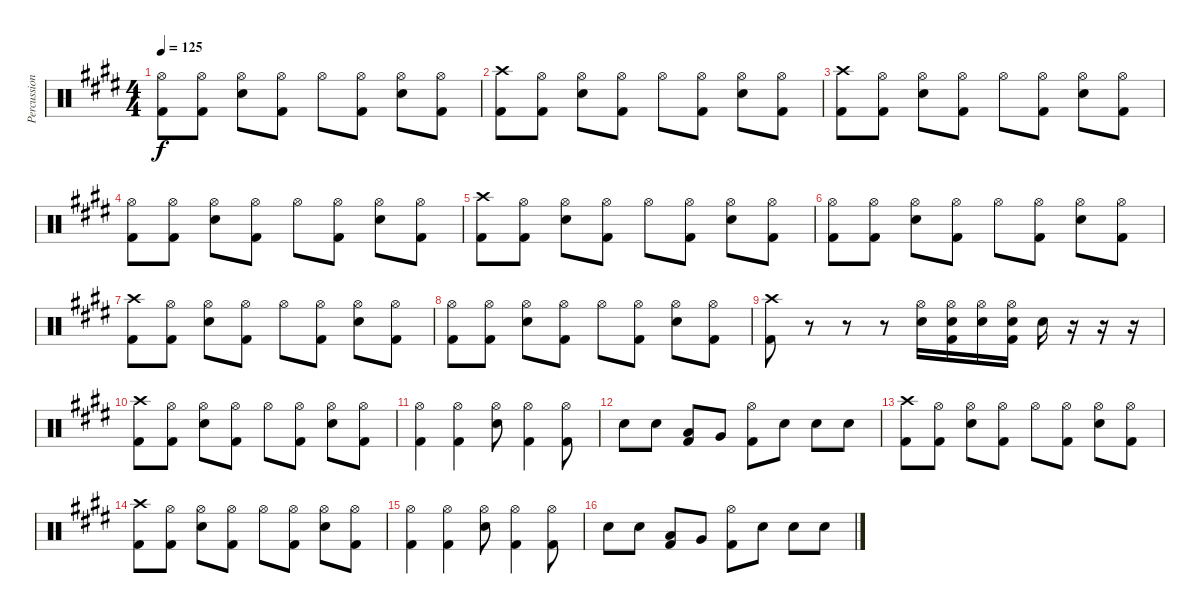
\track ("Percussion" "Percussion") {instrument percussion}
\staff {score}
\articulation defaults
\ts (4 4)
\tempo 125
\clef neutral
\ks e
("Hi-Hat (open)" "Kick (hit) 2").8{dy f} ("Hi-Hat (open)" "Kick (hit) 2").8 ("Hi-Hat (open)" "Electric Snare (hit)").8 ("Hi-Hat (open)" "Kick (hit) 2").8 "Hi-Hat (open)".8 ("Hi-Hat (open)" "Kick (hit) 2").8 ("Hi-Hat (open)" "Electric Snare (hit)").8 ("Hi-Hat (open)" "Kick (hit) 2").8 |
("Crash high (hit)" "Kick (hit) 2").8 ("Hi-Hat (open)" "Kick (hit) 2").8 ("Hi-Hat (open)" "Electric Snare (hit)").8 ("Hi-Hat (open)" "Kick (hit) 2").8 "Hi-Hat (open)".8 ("Hi-Hat (open)" "Kick (hit) 2").8 ("Hi-Hat (open)" "Electric Snare (hit)").8 ("Hi-Hat (open)" "Kick (hit) 2").8 |
("Crash high (hit)" "Kick (hit) 2").8 ("Hi-Hat (open)" "Kick (hit) 2").8 ("Hi-Hat (open)" "Electric Snare (hit)").8 ("Hi-Hat (open)" "Kick (hit) 2").8 "Hi-Hat (open)".8 ("Hi-Hat (open)" "Kick (hit) 2").8 ("Hi-Hat (open)" "Electric Snare (hit)").8 ("Hi-Hat (open)" "Kick (hit) 2").8 |
("Hi-Hat (open)" "Kick (hit) 2").8 ("Hi-Hat (open)" "Kick (hit) 2").8 ("Hi-Hat (open)" "Electric Snare (hit)").8 ("Hi-Hat (open)" "Kick (hit) 2").8 "Hi-Hat (open)".8 ("Hi-Hat (open)" "Kick (hit) 2").8 ("Hi-Hat (open)" "Electric Snare (hit)").8 ("Hi-Hat (open)" "Kick (hit) 2").8 |
("Crash high (hit)" "Kick (hit) 2").8 ("Hi-Hat (open)" "Kick (hit) 2").8 ("Hi-Hat (open)" "Electric Snare (hit)").8 ("Hi-Hat (open)" "Kick (hit) 2").8 "Hi-Hat (open)".8 ("Hi-Hat (open)" "Kick (hit) 2").8 ("Hi-Hat (open)" "Electric Snare (hit)").8 ("Hi-Hat (open)" "Kick (hit) 2").8 |
("Hi-Hat (open)" "Kick (hit) 2").8 ("Hi-Hat (open)" "Kick (hit) 2").8 ("Hi-Hat (open)" "Electric Snare (hit)").8 ("Hi-Hat (open)" "Kick (hit) 2").8 "Hi-Hat (open)".8 ("Hi-Hat (open)" "Kick (hit) 2").8 ("Hi-Hat (open)" "Electric Snare (hit)").8 ("Hi-Hat (open)" "Kick (hit) 2").8 |
("Crash high (hit)" "Kick (hit) 2").8 ("Hi-Hat (open)" "Kick (hit) 2").8 ("Hi-Hat (open)" "Electric Snare (hit)").8 ("Hi-Hat (open)" "Kick (hit) 2").8 "Hi-Hat (open)".8 ("Hi-Hat (open)" "Kick (hit) 2").8 ("Hi-Hat (open)" "Electric Snare (hit)").8 ("Hi-Hat (open)" "Kick (hit) 2").8 |
("Hi-Hat (open)" "Kick (hit) 2").8 ("Hi-Hat (open)" "Kick (hit) 2").8 ("Hi-Hat (open)" "Electric Snare (hit)").8 ("Hi-Hat (open)" "Kick (hit) 2").8 "Hi-Hat (open)".8 ("Hi-Hat (open)" "Kick (hit) 2").8 ("Hi-Hat (open)" "Electric Snare (hit)").8 ("Hi-Hat (open)" "Kick (hit) 2").8 |
("Crash high (hit)" "Kick (hit) 2").8 r.8 r.8 r.8 ("Hi-Hat (open)" "Electric Snare (hit)").16 ("Hi-Hat (open)" "Electric Snare (hit)" "Kick (hit) 2").16 ("Hi-Hat (open)" "Electric Snare (hit)").16 ("Hi-Hat (open)" "Electric Snare (hit)" "Kick (hit) 2").16 "Electric Snare (hit)".16 r.16 r.16 r.16 |
("Crash high (hit)" "Kick (hit) 2").8 ("Hi-Hat (open)" "Kick (hit) 2").8 ("Hi-Hat (open)" "Electric Snare (hit)").8 ("Hi-Hat (open)" "Kick (hit) 2").8 "Hi-Hat (open)".8 ("Hi-Hat (open)" "Kick (hit) 2").8 ("Hi-Hat (open)" "Electric Snare (hit)").8 ("Hi-Hat (open)" "Kick (hit) 2").8 |
("Hi-Hat (open)" "Kick (hit) 2").4 ("Hi-Hat (open)" "Kick (hit) 2").4 ("Hi-Hat (open)" "Electric Snare (hit)").8 ("Hi-Hat (open)" "Kick (hit) 2").4 ("Hi-Hat (open)" "Kick (hit) 2").8 |
"Electric Snare (hit)".8 "Electric Snare (hit)".8 ("Low Tom (hit)" "Kick (hit) 2").8 "Very Low Tom (hit)".8 ("Hi-Hat (open)" "Kick (hit) 2").8 "Electric Snare (hit)".8 "Electric Snare (hit)".8 "Electric Snare (hit)".8 |
("Crash high (hit)" "Kick (hit) 2").8 ("Hi-Hat (open)" "Kick (hit) 2").8 ("Hi-Hat (open)" "Electric Snare (hit)").8 ("Hi-Hat (open)" "Kick (hit) 2").8 "Hi-Hat (open)".8 ("Hi-Hat (open)" "Kick (hit) 2").8 ("Hi-Hat (open)" "Electric Snare (hit)").8 ("Hi-Hat (open)" "Kick (hit) 2").8 |
("Crash high (hit)" "Kick (hit) 2").8 ("Hi-Hat (open)" "Kick (hit) 2").8 ("Hi-Hat (open)" "Electric Snare (hit)").8 ("Hi-Hat (open)" "Kick (hit) 2").8 "Hi-Hat (open)".8 ("Hi-Hat (open)" "Kick (hit) 2").8 ("Hi-Hat (open)" "Electric Snare (hit)").8 ("Hi-Hat (open)" "Kick (hit) 2").8 |
("Hi-Hat (open)" "Kick (hit) 2").4 ("Hi-Hat (open)" "Kick (hit) 2").4 ("Hi-Hat (open)" "Electric Snare (hit)").8 ("Hi-Hat (open)" "Kick (hit) 2").4 ("Hi-Hat (open)" "Kick (hit) 2").8 |
"Electric Snare (hit)".8 "Electric Snare (hit)".8 ("Low Tom (hit)" "Kick (hit) 2").8 "Very Low Tom (hit)".8 ("Hi-Hat (open)" "Kick (hit) 2").8 "Electric Snare (hit)".8 "Electric Snare (hit)".8 "Electric Snare (hit)".8
